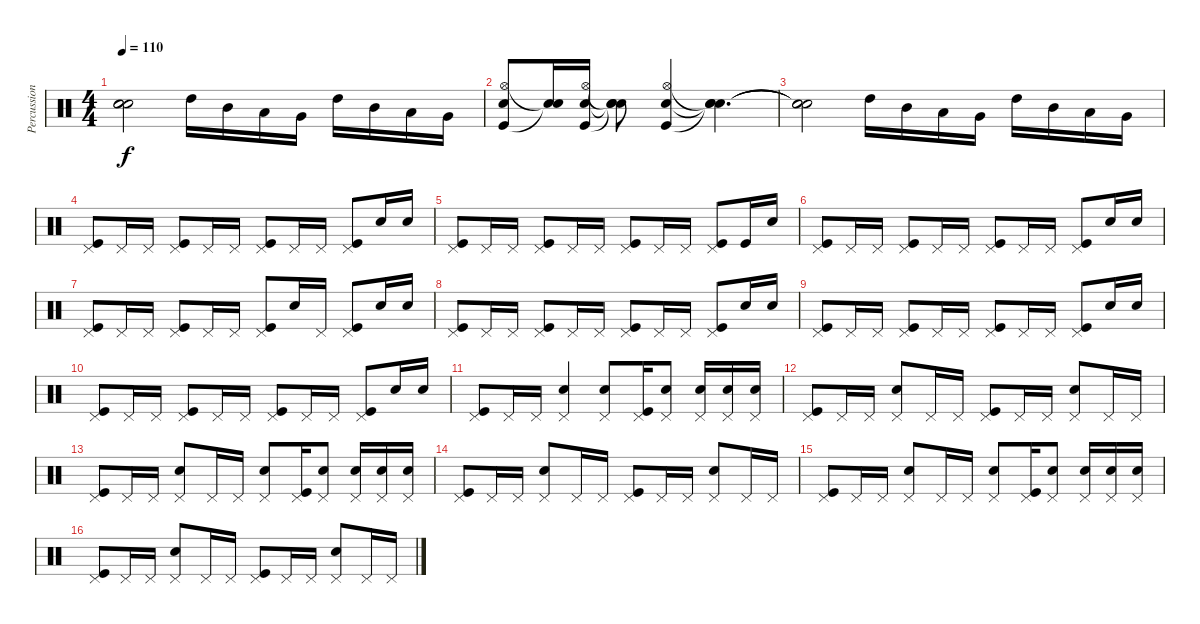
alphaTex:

\track ("Percussions" "Percussion") {instrument percussion}
\staff {score}
\articulation defaults
\ts (4 4)
\tempo 110
\clef neutral
\ks c
("Snare (hit)"{t} "Snare (hit)"{t} "Snare (hit)"{t}).2{dy f} "High Tom (hit)".16 "Mid Tom (hit)".16 "Low Tom (hit)".16 "Very Low Tom (hit)".16 "High Tom (hit)".16 "Mid Tom (hit)".16 "Low Tom (hit)".16 "Very Low Tom (hit)".16 |
("Hi-Hat (open)" "Kick (hit)" "Snare (hit) 2").8 ("Snare (hit)"{t} "Snare (hit)"{t}).16 ("Hi-Hat (open)" "Kick (hit)" "Snare (hit) 2").16 ("Snare (hit)"{t} "Snare (hit)"{t} "Snare (hit)"{t}).8 ("Hi-Hat (open)" "Kick (hit)" "Snare (hit) 2").4 ("Snare (hit)"{t} "Snare (hit)"{t} "Snare (hit)"{t}).4{d} |
("Snare (hit)"{t} "Snare (hit)"{t} "Snare (hit)"{t}).2 "High Tom (hit)".16 "Mid Tom (hit)".16 "Low Tom (hit)".16 "Very Low Tom (hit)".16 "High Tom (hit)".16 "Mid Tom (hit)".16 "Low Tom (hit)".16 "Very Low Tom (hit)".16 |
("Pedal Hi-Hat (hit)" "Kick (hit)").8 "Pedal Hi-Hat (hit)".16 "Pedal Hi-Hat (hit)".16 ("Pedal Hi-Hat (hit)" "Kick (hit)").8 "Pedal Hi-Hat (hit)".16 "Pedal Hi-Hat (hit)".16 ("Pedal Hi-Hat (hit)" "Kick (hit)").8 "Pedal Hi-Hat (hit)".16 "Pedal Hi-Hat (hit)".16 ("Pedal Hi-Hat (hit)" "Kick (hit)").8 "Snare (hit) 2".16 "Snare (hit) 2".16 |
("Pedal Hi-Hat (hit)" "Kick (hit)").8 "Pedal Hi-Hat (hit)".16 "Pedal Hi-Hat (hit)".16 ("Pedal Hi-Hat (hit)" "Kick (hit)").8 "Pedal Hi-Hat (hit)".16 "Pedal Hi-Hat (hit)".16 ("Pedal Hi-Hat (hit)" "Kick (hit)").8 "Pedal Hi-Hat (hit)".16 "Pedal Hi-Hat (hit)".16 ("Pedal Hi-Hat (hit)" "Kick (hit)").8 "Kick (hit)".16 "Snare (hit) 2".16 |
("Pedal Hi-Hat (hit)" "Kick (hit)").8 "Pedal Hi-Hat (hit)".16 "Pedal Hi-Hat (hit)".16 ("Pedal Hi-Hat (hit)" "Kick (hit)").8 "Pedal Hi-Hat (hit)".16 "Pedal Hi-Hat (hit)".16 ("Pedal Hi-Hat (hit)" "Kick (hit)").8 "Pedal Hi-Hat (hit)".16 "Pedal Hi-Hat (hit)".16 ("Pedal Hi-Hat (hit)" "Kick (hit)").8 "Snare (hit) 2".16 "Snare (hit) 2".16 |
("Pedal Hi-Hat (hit)" "Kick (hit)").8 "Pedal Hi-Hat (hit)".16 "Pedal Hi-Hat (hit)".16 ("Pedal Hi-Hat (hit)" "Kick (hit)").8 "Pedal Hi-Hat (hit)".16 "Pedal Hi-Hat (hit)".16 ("Pedal Hi-Hat (hit)" "Kick (hit)").8 "Snare (hit) 2".16 "Pedal Hi-Hat (hit)".16 ("Pedal Hi-Hat (hit)" "Kick (hit)").8 "Snare (hit) 2".16 "Snare (hit) 2".16 |
("Pedal Hi-Hat (hit)" "Kick (hit)").8 "Pedal Hi-Hat (hit)".16 "Pedal Hi-Hat (hit)".16 ("Pedal Hi-Hat (hit)" "Kick (hit)").8 "Pedal Hi-Hat (hit)".16 "Pedal Hi-Hat (hit)".16 ("Pedal Hi-Hat (hit)" "Kick (hit)").8 "Pedal Hi-Hat (hit)".16 "Pedal Hi-Hat (hit)".16 ("Pedal Hi-Hat (hit)" "Kick (hit)").8 "Snare (hit) 2".16 "Snare (hit) 2".16 |
("Pedal Hi-Hat (hit)" "Kick (hit)").8 "Pedal Hi-Hat (hit)".16 "Pedal Hi-Hat (hit)".16 ("Pedal Hi-Hat (hit)" "Kick (hit)").8 "Pedal Hi-Hat (hit)".16 "Pedal Hi-Hat (hit)".16 ("Pedal Hi-Hat (hit)" "Kick (hit)").8 "Pedal Hi-Hat (hit)".16 "Pedal Hi-Hat (hit)".16 ("Pedal Hi-Hat (hit)" "Kick (hit)").8 "Snare (hit) 2".16 "Snare (hit) 2".16 |
("Pedal Hi-Hat (hit)" "Kick (hit)").8 "Pedal Hi-Hat (hit)".16 "Pedal Hi-Hat (hit)".16 ("Pedal Hi-Hat (hit)" "Kick (hit)").8 "Pedal Hi-Hat (hit)".16 "Pedal Hi-Hat (hit)".16 ("Pedal Hi-Hat (hit)" "Kick (hit)").8 "Pedal Hi-Hat (hit)".16 "Pedal Hi-Hat (hit)".16 ("Pedal Hi-Hat (hit)" "Kick (hit)").8 "Snare (hit) 2".16 "Snare (hit) 2".16 |
("Pedal Hi-Hat (hit)" "Kick (hit)").8 "Pedal Hi-Hat (hit)".16 "Pedal Hi-Hat (hit)".16 ("Pedal Hi-Hat (hit)" "Snare (hit) 2").4 ("Pedal Hi-Hat (hit)" "Snare (hit) 2").8 ("Pedal Hi-Hat (hit)" "Kick (hit)").16 ("Pedal Hi-Hat (hit)" "Snare (hit) 2").8 ("Snare (hit) 2" "Pedal Hi-Hat (hit)").16 ("Snare (hit) 2" "Pedal Hi-Hat (hit)").16 ("Snare (hit) 2" "Pedal Hi-Hat (hit)").16 |
("Pedal Hi-Hat (hit)" "Kick (hit)").8 "Pedal Hi-Hat (hit)".16 "Pedal Hi-Hat (hit)".16 ("Pedal Hi-Hat (hit)" "Snare (hit) 2").8 "Pedal Hi-Hat (hit)".16 "Pedal Hi-Hat (hit)".16 ("Pedal Hi-Hat (hit)" "Kick (hit)").8 "Pedal Hi-Hat (hit)".16 "Pedal Hi-Hat (hit)".16 ("Pedal Hi-Hat (hit)" "Snare (hit) 2").8 "Pedal Hi-Hat (hit)".16 "Pedal Hi-Hat (hit)".16 |
("Pedal Hi-Hat (hit)" "Kick (hit)").8 "Pedal Hi-Hat (hit)".16 "Pedal Hi-Hat (hit)".16 ("Pedal Hi-Hat (hit)" "Snare (hit) 2").8 "Pedal Hi-Hat (hit)".16 "Pedal Hi-Hat (hit)".16 ("Pedal Hi-Hat (hit)" "Snare (hit) 2").8 ("Pedal Hi-Hat (hit)" "Kick (hit)").16 ("Pedal Hi-Hat (hit)" "Snare (hit) 2").8 ("Snare (hit) 2" "Pedal Hi-Hat (hit)").16 ("Snare (hit) 2" "Pedal Hi-Hat (hit)").16 ("Snare (hit) 2" "Pedal Hi-Hat (hit)").16 |
("Pedal Hi-Hat (hit)" "Kick (hit)").8 "Pedal Hi-Hat (hit)".16 "Pedal Hi-Hat (hit)".16 ("Pedal Hi-Hat (hit)" "Snare (hit) 2").8 "Pedal Hi-Hat (hit)".16 "Pedal Hi-Hat (hit)".16 ("Pedal Hi-Hat (hit)" "Kick (hit)").8 "Pedal Hi-Hat (hit)".16 "Pedal Hi-Hat (hit)".16 ("Pedal Hi-Hat (hit)" "Snare (hit) 2").8 "Pedal Hi-Hat (hit)".16 "Pedal Hi-Hat (hit)".16 |
("Pedal Hi-Hat (hit)" "Kick (hit)").8 "Pedal Hi-Hat (hit)".16 "Pedal Hi-Hat (hit)".16 ("Pedal Hi-Hat (hit)" "Snare (hit) 2").8 "Pedal Hi-Hat (hit)".16 "Pedal Hi-Hat (hit)".16 ("Pedal Hi-Hat (hit)" "Snare (hit) 2").8 ("Pedal Hi-Hat (hit)" "Kick (hit)").16 ("Pedal Hi-Hat (hit)" "Snare (hit) 2").8 ("Snare (hit) 2" "Pedal Hi-Hat (hit)").16 ("Snare (hit) 2" "Pedal Hi-Hat (hit)").16 ("Snare (hit) 2" "Pedal Hi-Hat (hit)").16 |
("Pedal Hi-Hat (hit)" "Kick (hit)").8 "Pedal Hi-Hat (hit)".16 "Pedal Hi-Hat (hit)".16 ("Pedal Hi-Hat (hit)" "Snare (hit) 2").8 "Pedal Hi-Hat (hit)".16 "Pedal Hi-Hat (hit)".16 ("Pedal Hi-Hat (hit)" "Kick (hit)").8 "Pedal Hi-Hat (hit)".16 "Pedal Hi-Hat (hit)".16 ("Pedal Hi-Hat (hit)" "Snare (hit) 2").8 "Pedal Hi-Hat (hit)".16 "Pedal Hi-Hat (hit)".16
